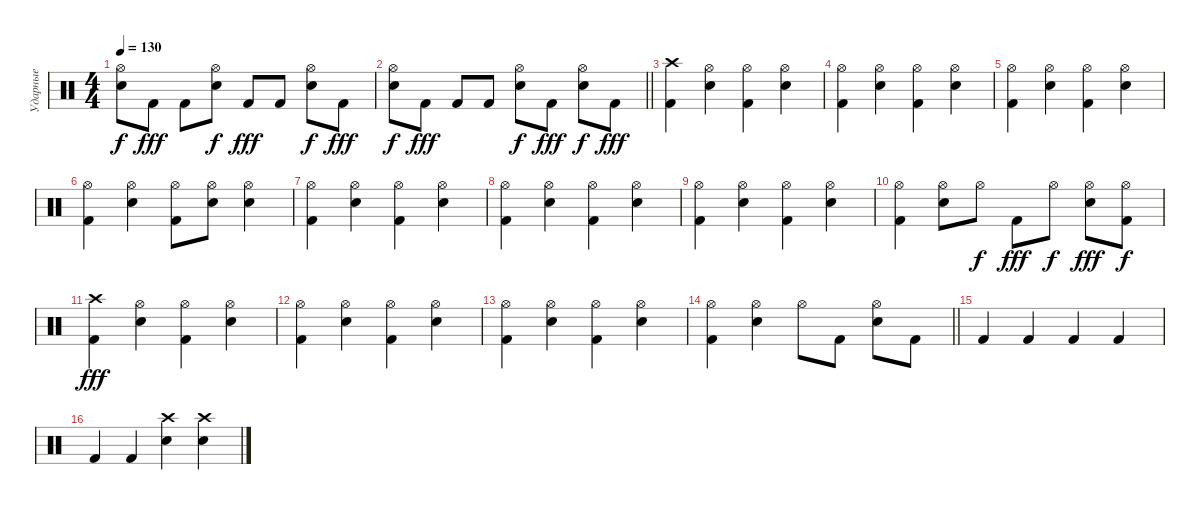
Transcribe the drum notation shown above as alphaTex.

\track ("Ударные" "Ударные") {instrument percussion}
\staff {score}
\articulation defaults
\ts (4 4)
\tempo 130
\clef neutral
\ks c
("Snare (hit) 2" "Hi-Hat (open)").8{dy f} "Kick (hit) 2".8{dy fff} "Kick (hit) 2".8 ("Snare (hit) 2" "Hi-Hat (open)").8{dy f} "Kick (hit) 2".8{dy fff} "Kick (hit) 2".8 ("Snare (hit) 2" "Hi-Hat (open)").8{dy f} "Kick (hit) 2".8{dy fff} |
\barLineRight lightlight
("Snare (hit) 2" "Hi-Hat (open)").8{dy f} "Kick (hit) 2".8{dy fff} "Kick (hit) 2".8 "Kick (hit) 2".8 ("Snare (hit) 2" "Hi-Hat (open)").8{dy f} "Kick (hit) 2".8{dy fff} ("Snare (hit) 2" "Hi-Hat (open)").8{dy f} "Kick (hit) 2".8{dy fff} |
("Kick (hit) 2" "Crash high (hit)").4 ("Snare (hit) 2" "Hi-Hat (open)").4 ("Kick (hit) 2" "Hi-Hat (open)").4 ("Snare (hit) 2" "Hi-Hat (open)").4 |
("Kick (hit) 2" "Hi-Hat (open)").4 ("Snare (hit) 2" "Hi-Hat (open)").4 ("Kick (hit) 2" "Hi-Hat (open)").4 ("Snare (hit) 2" "Hi-Hat (open)").4 |
("Kick (hit) 2" "Hi-Hat (open)").4 ("Snare (hit) 2" "Hi-Hat (open)").4 ("Kick (hit) 2" "Hi-Hat (open)").4 ("Snare (hit) 2" "Hi-Hat (open)").4 |
("Kick (hit) 2" "Hi-Hat (open)").4 ("Snare (hit) 2" "Hi-Hat (open)").4 ("Kick (hit) 2" "Hi-Hat (open)").8 ("Snare (hit) 2" "Hi-Hat (open)").8 ("Snare (hit) 2" "Hi-Hat (open)").4 |
("Kick (hit) 2" "Hi-Hat (open)").4 ("Snare (hit) 2" "Hi-Hat (open)").4 ("Kick (hit) 2" "Hi-Hat (open)").4 ("Snare (hit) 2" "Hi-Hat (open)").4 |
("Kick (hit) 2" "Hi-Hat (open)").4 ("Snare (hit) 2" "Hi-Hat (open)").4 ("Kick (hit) 2" "Hi-Hat (open)").4 ("Snare (hit) 2" "Hi-Hat (open)").4 |
("Kick (hit) 2" "Hi-Hat (open)").4 ("Snare (hit) 2" "Hi-Hat (open)").4 ("Kick (hit) 2" "Hi-Hat (open)").4 ("Snare (hit) 2" "Hi-Hat (open)").4 |
("Kick (hit) 2" "Hi-Hat (open)").4 ("Snare (hit) 2" "Hi-Hat (open)").8 "Hi-Hat (open)".8{dy f} "Kick (hit) 2".8{dy fff} "Hi-Hat (open)".8{dy f} ("Snare (hit) 2" "Hi-Hat (open)").8{dy fff} ("Kick (hit) 2" "Hi-Hat (open)").8{dy f} |
("Kick (hit) 2" "Crash high (hit)").4{dy fff} ("Snare (hit) 2" "Hi-Hat (open)").4 ("Kick (hit) 2" "Hi-Hat (open)").4 ("Snare (hit) 2" "Hi-Hat (open)").4 |
("Kick (hit) 2" "Hi-Hat (open)").4 ("Snare (hit) 2" "Hi-Hat (open)").4 ("Kick (hit) 2" "Hi-Hat (open)").4 ("Snare (hit) 2" "Hi-Hat (open)").4 |
("Kick (hit) 2" "Hi-Hat (open)").4 ("Snare (hit) 2" "Hi-Hat (open)").4 ("Kick (hit) 2" "Hi-Hat (open)").4 ("Snare (hit) 2" "Hi-Hat (open)").4 |
\barLineRight lightlight
("Kick (hit) 2" "Hi-Hat (open)").4 ("Snare (hit) 2" "Hi-Hat (open)").4 "Hi-Hat (open)".8 "Kick (hit) 2".8 ("Snare (hit) 2" "Hi-Hat (open)").8 "Kick (hit) 2".8 |
"Kick (hit) 2".4 "Kick (hit) 2".4 "Kick (hit) 2".4 "Kick (hit) 2".4 |
"Kick (hit) 2".4 "Kick (hit) 2".4 ("Snare (hit) 2" "Crash high (hit)").4 ("Snare (hit) 2" "Crash high (hit)").4
